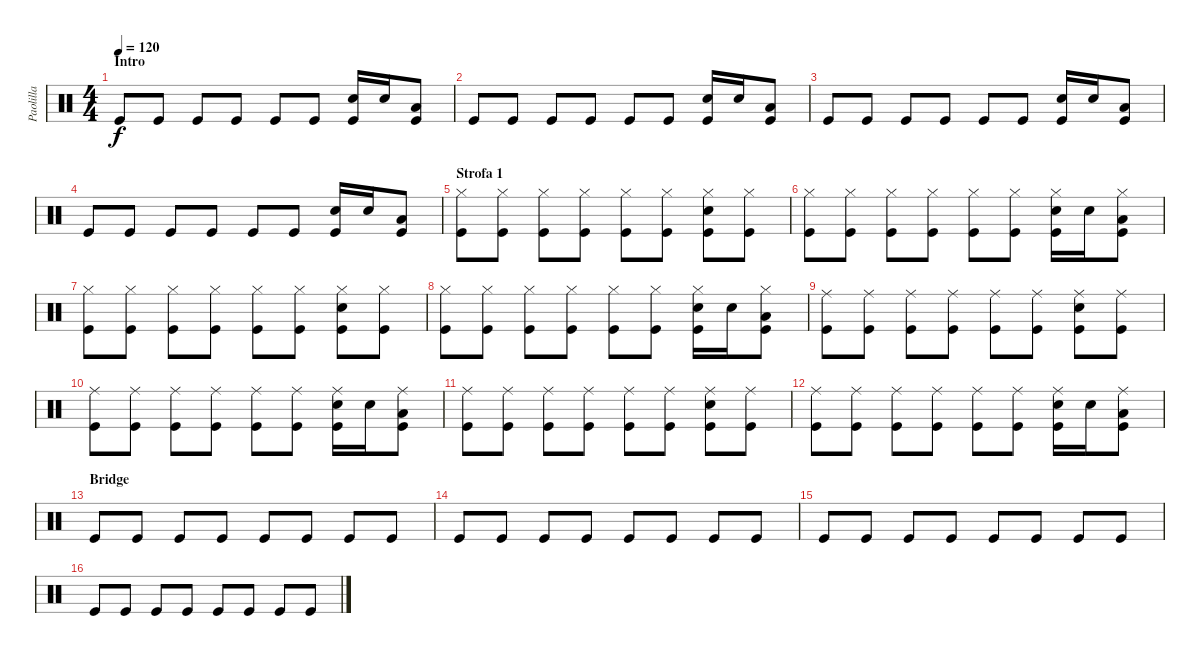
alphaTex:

\track ("Paolilla" "Paolilla") {instrument percussion}
\staff {score}
\articulation defaults
\ts (4 4)
\section ("" "Intro")
\tempo 120
\clef neutral
\ks c "Kick (hit)".8{dy f} "Kick (hit)".8 "Kick (hit)".8 "Kick (hit)".8 "Kick (hit)".8 "Kick (hit)".8
("Snare (hit) 2" "Kick (hit)").16 "Snare (hit) 2".16 ("Low Tom (hit)" "Kick (hit)").8 |
"Kick (hit)".8 "Kick (hit)".8 "Kick (hit)".8 "Kick (hit)".8 "Kick (hit)".8 "Kick (hit)".8 ("Snare (hit) 2" "Kick (hit)").16 "Snare (hit) 2".16 ("Low Tom (hit)" "Kick (hit)").8 |
"Kick (hit)".8 "Kick (hit)".8 "Kick (hit)".8 "Kick (hit)".8 "Kick (hit)".8 "Kick (hit)".8 ("Snare (hit) 2" "Kick (hit)").16 "Snare (hit) 2".16 ("Low Tom (hit)" "Kick (hit)").8 |
"Kick (hit)".8 "Kick (hit)".8 "Kick (hit)".8 "Kick (hit)".8 "Kick (hit)".8 "Kick (hit)".8 ("Snare (hit) 2" "Kick (hit)").16 "Snare (hit) 2".16 ("Low Tom (hit)" "Kick (hit)").8 |
\section ("" "Strofa 1 ")
("Hi-Hat (closed)" "Kick (hit)").8 ("Hi-Hat (closed)" "Kick (hit)").8 ("Hi-Hat (closed)" "Kick (hit)").8 ("Hi-Hat (closed)" "Kick (hit)").8 ("Hi-Hat (closed)" "Kick (hit)").8 ("Hi-Hat (closed)" "Kick (hit)").8 ("Hi-Hat (closed)" "Snare (hit) 2" "Kick (hit)").8 ("Hi-Hat (closed)" "Kick (hit)").8 |
("Hi-Hat (closed)" "Kick (hit)").8 ("Hi-Hat (closed)" "Kick (hit)").8 ("Hi-Hat (closed)" "Kick (hit)").8 ("Hi-Hat (closed)" "Kick (hit)").8 ("Hi-Hat (closed)" "Kick (hit)").8 ("Hi-Hat (closed)" "Kick (hit)").8 ("Hi-Hat (closed)" "Snare (hit) 2" "Kick (hit)").16 "Snare (hit) 2".16 ("Hi-Hat (closed)" "Low Tom (hit)" "Kick (hit)").8 |
("Hi-Hat (closed)" "Kick (hit)").8 ("Hi-Hat (closed)" "Kick (hit)").8 ("Hi-Hat (closed)" "Kick (hit)").8 ("Hi-Hat (closed)" "Kick (hit)").8 ("Hi-Hat (closed)" "Kick (hit)").8 ("Hi-Hat (closed)" "Kick (hit)").8 ("Hi-Hat (closed)" "Snare (hit) 2" "Kick (hit)").8 ("Hi-Hat (closed)" "Kick (hit)").8 |
("Hi-Hat (closed)" "Kick (hit)").8 ("Hi-Hat (closed)" "Kick (hit)").8 ("Hi-Hat (closed)" "Kick (hit)").8 ("Hi-Hat (closed)" "Kick (hit)").8 ("Hi-Hat (closed)" "Kick (hit)").8 ("Hi-Hat (closed)" "Kick (hit)").8 ("Hi-Hat (closed)" "Snare (hit) 2" "Kick (hit)").16 "Snare (hit) 2".16 ("Hi-Hat (closed)" "Low Tom (hit)" "Kick (hit)").8 |
("Ride (middle)" "Kick (hit)").8 ("Ride (middle)" "Kick (hit)").8 ("Ride (middle)" "Kick (hit)").8 ("Ride (middle)" "Kick (hit)").8 ("Ride (middle)" "Kick (hit)").8 ("Ride (middle)" "Kick (hit)").8 ("Ride (middle)" "Snare (hit) 2" "Kick (hit)").8 ("Ride (middle)" "Kick (hit)").8 |
("Ride (middle)" "Kick (hit)").8 ("Ride (middle)" "Kick (hit)").8 ("Ride (middle)" "Kick (hit)").8 ("Ride (middle)" "Kick (hit)").8 ("Ride (middle)" "Kick (hit)").8 ("Ride (middle)" "Kick (hit)").8 ("Ride (middle)" "Snare (hit) 2" "Kick (hit)").16 "Snare (hit) 2".16 ("Ride (middle)" "Low Tom (hit)" "Kick (hit)").8 |
("Ride (middle)" "Kick (hit)").8 ("Ride (middle)" "Kick (hit)").8 ("Ride (middle)" "Kick (hit)").8 ("Ride (middle)" "Kick (hit)").8 ("Ride (middle)" "Kick (hit)").8 ("Ride (middle)" "Kick (hit)").8 ("Ride (middle)" "Snare (hit) 2" "Kick (hit)").8 ("Ride (middle)" "Kick (hit)").8 |
("Ride (middle)" "Kick (hit)").8 ("Ride (middle)" "Kick (hit)").8 ("Ride (middle)" "Kick (hit)").8 ("Ride (middle)" "Kick (hit)").8 ("Ride (middle)" "Kick (hit)").8 ("Ride (middle)" "Kick (hit)").8 ("Ride (middle)" "Snare (hit) 2" "Kick (hit)").16 "Snare (hit) 2".16 ("Ride (middle)" "Low Tom (hit)" "Kick (hit)").8 |
\section ("" "Bridge")
"Kick (hit)".8 "Kick (hit)".8 "Kick (hit)".8 "Kick (hit)".8 "Kick (hit)".8 "Kick (hit)".8 "Kick (hit)".8 "Kick (hit)".8 |
"Kick (hit)".8 "Kick (hit)".8 "Kick (hit)".8 "Kick (hit)".8 "Kick (hit)".8 "Kick (hit)".8 "Kick (hit)".8 "Kick (hit)".8 |
"Kick (hit)".8 "Kick (hit)".8 "Kick (hit)".8 "Kick (hit)".8 "Kick (hit)".8 "Kick (hit)".8 "Kick (hit)".8 "Kick (hit)".8 |
"Kick (hit)".8 "Kick (hit)".8 "Kick (hit)".8 "Kick (hit)".8 "Kick (hit)".8 "Kick (hit)".8 "Kick (hit)".8 "Kick (hit)".8
